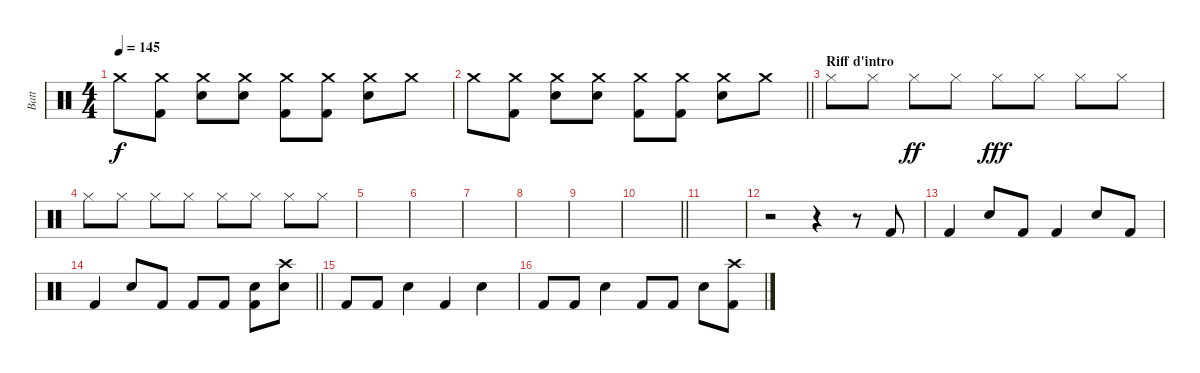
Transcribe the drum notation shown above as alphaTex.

\track ("Batt" "Batt") {instrument percussion}
\staff {score}
\articulation defaults
\ts (4 4)
\tempo 145
\clef neutral
\ks c "Crash medium (hit)".8{dy f}
("Crash medium (hit)" "Kick (hit) 2").8 ("Crash medium (hit)" "Snare (hit) 2").8 ("Crash medium (hit)" "Snare (hit) 2").8 ("Crash medium (hit)" "Kick (hit) 2").8 ("Crash medium (hit)" "Kick (hit) 2").8 ("Crash medium (hit)" "Snare (hit) 2").8 "Crash medium (hit)".8 |
\barLineRight lightlight "Crash medium (hit)".8
("Crash medium (hit)" "Kick (hit) 2").8 ("Crash medium (hit)" "Snare (hit) 2").8 ("Crash medium (hit)" "Snare (hit) 2").8 ("Crash medium (hit)" "Kick (hit) 2").8 ("Crash medium (hit)" "Kick (hit) 2").8 ("Crash medium (hit)" "Snare (hit) 2").8 "Crash medium (hit)".8 |
\section ("" "Riff d'intro")
"Hi-Hat (closed)".8 "Hi-Hat (closed)".8 "Hi-Hat (closed)".8{dy ff} "Hi-Hat (closed)".8 "Hi-Hat (closed)".8{dy fff} "Hi-Hat (closed)".8 "Hi-Hat (closed)".8 "Hi-Hat (closed)".8 |
"Hi-Hat (closed)".8 "Hi-Hat (closed)".8 "Hi-Hat (closed)".8 "Hi-Hat (closed)".8 "Hi-Hat (closed)".8 "Hi-Hat (closed)".8 "Hi-Hat (closed)".8 "Hi-Hat (closed)".8 |
|
|
|
|
|
\barLineRight lightlight
|
|
r.2 r.4 r.8 "Kick (hit) 2".8 |
"Kick (hit) 2".4 "Snare (hit) 2".8 "Kick (hit) 2".8 "Kick (hit) 2".4 "Snare (hit) 2".8 "Kick (hit) 2".8 |
\barLineRight lightlight "Kick (hit) 2".4 "Snare (hit) 2".8 "Kick (hit) 2".8 "Kick (hit) 2".8 "Kick (hit) 2".8
("Snare (hit) 2" "Kick (hit) 2").8 ("Crash high (hit)" "Snare (hit) 2").8 |
"Kick (hit) 2".8 "Kick (hit) 2".8 "Snare (hit) 2".4 "Kick (hit) 2".4 "Snare (hit) 2".4 |
"Kick (hit) 2".8 "Kick (hit) 2".8 "Snare (hit) 2".4 "Kick (hit) 2".8 "Kick (hit) 2".8 "Snare (hit) 2".8 ("Crash high (hit)" "Kick (hit) 2").8
